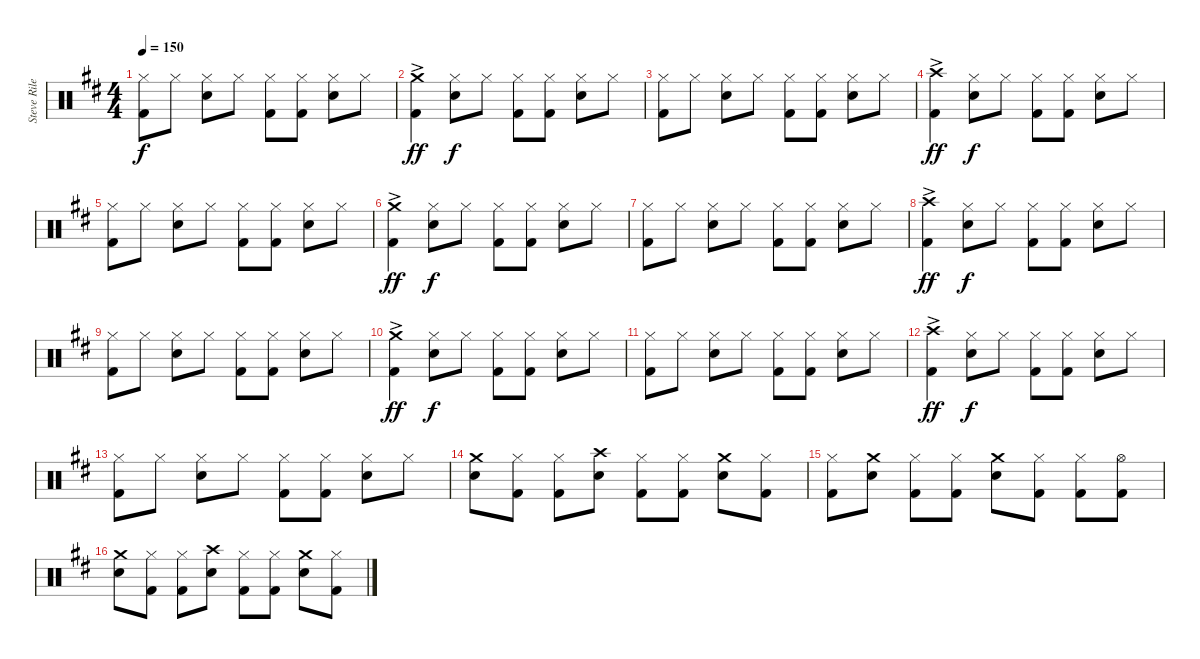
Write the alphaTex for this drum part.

\track ("Steve Riley" "Steve Rile") {instrument percussion}
\staff {score}
\articulation defaults
\ts (4 4)
\tempo 150
\clef neutral
\ks d
("Hi-Hat (closed)" "Kick (hit) 2").8{dy f} "Hi-Hat (closed)".8 ("Hi-Hat (closed)" "Electric Snare (hit)").8 "Hi-Hat (closed)".8 ("Hi-Hat (closed)" "Kick (hit) 2").8 ("Hi-Hat (closed)" "Kick (hit) 2").8 ("Hi-Hat (closed)" "Electric Snare (hit)").8 "Hi-Hat (closed)".8 |
("Crash medium (hit)"{ac} "Kick (hit) 2").4{dy ff} ("Hi-Hat (closed)" "Electric Snare (hit)").8{dy f} "Hi-Hat (closed)".8 ("Hi-Hat (closed)" "Kick (hit) 2").8 ("Hi-Hat (closed)" "Kick (hit) 2").8 ("Hi-Hat (closed)" "Electric Snare (hit)").8 "Hi-Hat (closed)".8 |
("Hi-Hat (closed)" "Kick (hit) 2").8 "Hi-Hat (closed)".8 ("Hi-Hat (closed)" "Electric Snare (hit)").8 "Hi-Hat (closed)".8 ("Hi-Hat (closed)" "Kick (hit) 2").8 ("Hi-Hat (closed)" "Kick (hit) 2").8 ("Hi-Hat (closed)" "Electric Snare (hit)").8 "Hi-Hat (closed)".8 |
("Crash high (hit)"{ac} "Kick (hit) 2").4{dy ff} ("Hi-Hat (closed)" "Electric Snare (hit)").8{dy f} "Hi-Hat (closed)".8 ("Hi-Hat (closed)" "Kick (hit) 2").8 ("Hi-Hat (closed)" "Kick (hit) 2").8 ("Hi-Hat (closed)" "Electric Snare (hit)").8 "Hi-Hat (closed)".8 |
("Hi-Hat (closed)" "Kick (hit) 2").8 "Hi-Hat (closed)".8 ("Hi-Hat (closed)" "Electric Snare (hit)").8 "Hi-Hat (closed)".8 ("Hi-Hat (closed)" "Kick (hit) 2").8 ("Hi-Hat (closed)" "Kick (hit) 2").8 ("Hi-Hat (closed)" "Electric Snare (hit)").8 "Hi-Hat (closed)".8 |
("Crash medium (hit)"{ac} "Kick (hit) 2").4{dy ff} ("Hi-Hat (closed)" "Electric Snare (hit)").8{dy f} "Hi-Hat (closed)".8 ("Hi-Hat (closed)" "Kick (hit) 2").8 ("Hi-Hat (closed)" "Kick (hit) 2").8 ("Hi-Hat (closed)" "Electric Snare (hit)").8 "Hi-Hat (closed)".8 |
("Hi-Hat (closed)" "Kick (hit) 2").8 "Hi-Hat (closed)".8 ("Hi-Hat (closed)" "Electric Snare (hit)").8 "Hi-Hat (closed)".8 ("Hi-Hat (closed)" "Kick (hit) 2").8 ("Hi-Hat (closed)" "Kick (hit) 2").8 ("Hi-Hat (closed)" "Electric Snare (hit)").8 "Hi-Hat (closed)".8 |
("Crash high (hit)"{ac} "Kick (hit) 2").4{dy ff} ("Hi-Hat (closed)" "Electric Snare (hit)").8{dy f} "Hi-Hat (closed)".8 ("Hi-Hat (closed)" "Kick (hit) 2").8 ("Hi-Hat (closed)" "Kick (hit) 2").8 ("Hi-Hat (closed)" "Electric Snare (hit)").8 "Hi-Hat (closed)".8 |
("Hi-Hat (closed)" "Kick (hit) 2").8 "Hi-Hat (closed)".8 ("Hi-Hat (closed)" "Electric Snare (hit)").8 "Hi-Hat (closed)".8 ("Hi-Hat (closed)" "Kick (hit) 2").8 ("Hi-Hat (closed)" "Kick (hit) 2").8 ("Hi-Hat (closed)" "Electric Snare (hit)").8 "Hi-Hat (closed)".8 |
("Crash medium (hit)"{ac} "Kick (hit) 2").4{dy ff} ("Hi-Hat (closed)" "Electric Snare (hit)").8{dy f} "Hi-Hat (closed)".8 ("Hi-Hat (closed)" "Kick (hit) 2").8 ("Hi-Hat (closed)" "Kick (hit) 2").8 ("Hi-Hat (closed)" "Electric Snare (hit)").8 "Hi-Hat (closed)".8 |
("Hi-Hat (closed)" "Kick (hit) 2").8 "Hi-Hat (closed)".8 ("Hi-Hat (closed)" "Electric Snare (hit)").8 "Hi-Hat (closed)".8 ("Hi-Hat (closed)" "Kick (hit) 2").8 ("Hi-Hat (closed)" "Kick (hit) 2").8 ("Hi-Hat (closed)" "Electric Snare (hit)").8 "Hi-Hat (closed)".8 |
("Crash high (hit)"{ac} "Kick (hit) 2").4{dy ff} ("Hi-Hat (closed)" "Electric Snare (hit)").8{dy f} "Hi-Hat (closed)".8 ("Hi-Hat (closed)" "Kick (hit) 2").8 ("Hi-Hat (closed)" "Kick (hit) 2").8 ("Hi-Hat (closed)" "Electric Snare (hit)").8 "Hi-Hat (closed)".8 |
("Hi-Hat (closed)" "Kick (hit) 2").8 "Hi-Hat (closed)".8 ("Hi-Hat (closed)" "Electric Snare (hit)").8 "Hi-Hat (closed)".8 ("Hi-Hat (closed)" "Kick (hit) 2").8 ("Hi-Hat (closed)" "Kick (hit) 2").8 ("Hi-Hat (closed)" "Electric Snare (hit)").8 "Hi-Hat (closed)".8 |
("Crash medium (hit)" "Electric Snare (hit)").8 ("Hi-Hat (closed)" "Kick (hit) 2").8 ("Hi-Hat (closed)" "Kick (hit) 2").8 ("Crash high (hit)" "Electric Snare (hit)").8 ("Hi-Hat (closed)" "Kick (hit) 2").8 ("Hi-Hat (closed)" "Kick (hit) 2").8 ("Crash medium (hit)" "Electric Snare (hit)").8 ("Hi-Hat (closed)" "Kick (hit) 2").8 |
("Hi-Hat (closed)" "Kick (hit) 2").8 ("Crash medium (hit)" "Electric Snare (hit)").8 ("Hi-Hat (closed)" "Kick (hit) 2").8 ("Hi-Hat (closed)" "Kick (hit) 2").8 ("Crash medium (hit)" "Electric Snare (hit)").8 ("Hi-Hat (closed)" "Kick (hit) 2").8 ("Hi-Hat (closed)" "Kick (hit) 2").8 ("Hi-Hat (open)" "Kick (hit) 2").8 |
("Crash medium (hit)" "Electric Snare (hit)").8 ("Hi-Hat (closed)" "Kick (hit) 2").8 ("Hi-Hat (closed)" "Kick (hit) 2").8 ("Crash high (hit)" "Electric Snare (hit)").8 ("Hi-Hat (closed)" "Kick (hit) 2").8 ("Hi-Hat (closed)" "Kick (hit) 2").8 ("Crash medium (hit)" "Electric Snare (hit)").8 ("Hi-Hat (closed)" "Kick (hit) 2").8
